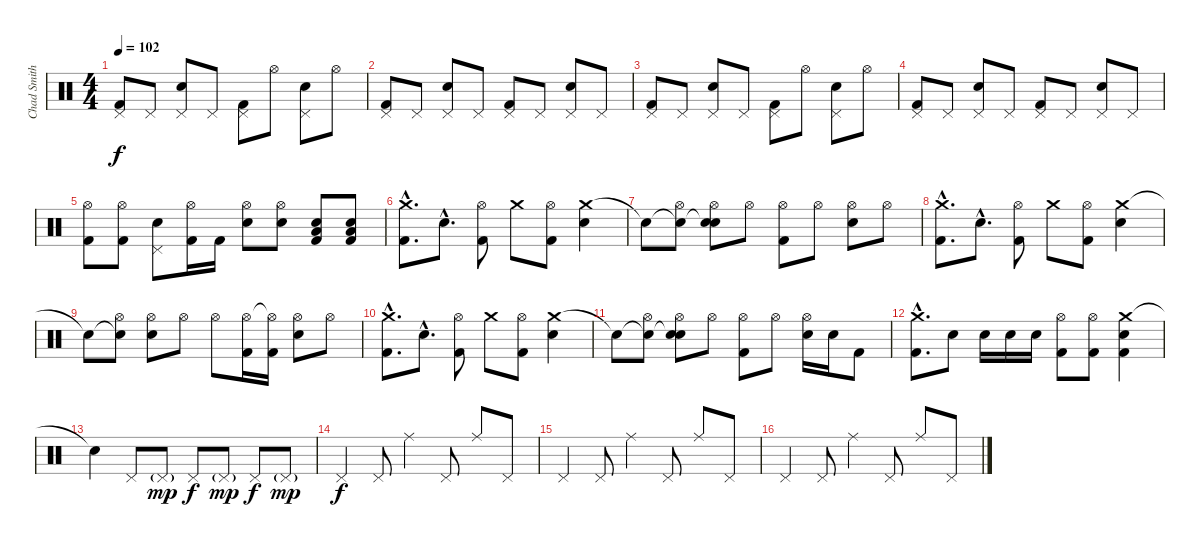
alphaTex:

\track ("Chad Smith (Batterie)" "Chad Smith") {instrument percussion}
\staff {score}
\articulation defaults
\ts (4 4)
\tempo 102
\clef neutral
\ks c
("Pedal Hi-Hat (hit)" "Kick (hit) 2").8{dy f} "Pedal Hi-Hat (hit)".8 ("Pedal Hi-Hat (hit)" "Electric Snare (hit)").8 "Pedal Hi-Hat (hit)".8 ("Pedal Hi-Hat (hit)" "Kick (hit) 2").8 "Hi-Hat (open)".8 ("Pedal Hi-Hat (hit)" "Electric Snare (hit)").8 "Hi-Hat (open)".8 |
("Pedal Hi-Hat (hit)" "Kick (hit) 2").8 "Pedal Hi-Hat (hit)".8 ("Pedal Hi-Hat (hit)" "Electric Snare (hit)").8 "Pedal Hi-Hat (hit)".8 ("Pedal Hi-Hat (hit)" "Kick (hit) 2").8 "Pedal Hi-Hat (hit)".8 ("Pedal Hi-Hat (hit)" "Electric Snare (hit)").8 "Pedal Hi-Hat (hit)".8 |
("Pedal Hi-Hat (hit)" "Kick (hit) 2").8 "Pedal Hi-Hat (hit)".8 ("Pedal Hi-Hat (hit)" "Electric Snare (hit)").8 "Pedal Hi-Hat (hit)".8 ("Pedal Hi-Hat (hit)" "Kick (hit) 2").8 "Hi-Hat (open)".8 ("Pedal Hi-Hat (hit)" "Electric Snare (hit)").8 "Hi-Hat (open)".8 |
("Pedal Hi-Hat (hit)" "Kick (hit) 2").8 "Pedal Hi-Hat (hit)".8 ("Pedal Hi-Hat (hit)" "Electric Snare (hit)").8 "Pedal Hi-Hat (hit)".8 ("Pedal Hi-Hat (hit)" "Kick (hit) 2").8 "Pedal Hi-Hat (hit)".8 ("Pedal Hi-Hat (hit)" "Electric Snare (hit)").8 "Pedal Hi-Hat (hit)".8 |
("Hi-Hat (open)" "Kick (hit) 2").8 ("Hi-Hat (open)" "Kick (hit) 2").8 ("Pedal Hi-Hat (hit)" "Electric Snare (hit)").8 ("Hi-Hat (open)" "Kick (hit) 2").16 "Kick (hit) 2".16 ("Hi-Hat (open)" "Electric Snare (hit)").8 ("Hi-Hat (open)" "Electric Snare (hit)").8 ("Low Tom (hit)" "Electric Snare (hit)" "Kick (hit) 2").8 ("Low Tom (hit)" "Electric Snare (hit)" "Kick (hit) 2").8 |
("Crash medium (hit)"{hac} "Kick (hit) 2"{hac}).8{d} "Electric Snare (hit)"{hac}.8{d} ("Hi-Hat (open)" "Kick (hit) 2").8 "Crash medium (hit)".8 ("Hi-Hat (open)" "Kick (hit) 2").8 ("Crash medium (hit)" "Electric Snare (hit)").4 |
"Snare (hit)"{t}.8 ("Snare (hit)"{t} "Hi-Hat (open)").8 ("Snare (hit)"{t} "Hi-Hat (open)" "Electric Snare (hit)").8 "Hi-Hat (open)".8 ("Hi-Hat (open)" "Kick (hit) 2").8 "Hi-Hat (open)".8 ("Hi-Hat (open)" "Electric Snare (hit)").8 "Hi-Hat (open)".8 |
("Crash medium (hit)"{hac} "Kick (hit) 2"{hac}).8{d} "Electric Snare (hit)"{hac}.8{d} ("Hi-Hat (open)" "Kick (hit) 2").8 "Crash medium (hit)".8 ("Hi-Hat (open)" "Kick (hit) 2").8 ("Crash medium (hit)" "Electric Snare (hit)").4 |
"Snare (hit)"{t}.8 ("Snare (hit)"{t} "Hi-Hat (open)").8 ("Hi-Hat (open)" "Electric Snare (hit)").8 "Hi-Hat (open)".8 "Hi-Hat (open)".8 ("Hi-Hat (open)" "Kick (hit) 2").16 ("Hi-Hat (open)"{t} "Kick (hit) 2").16 ("Hi-Hat (open)" "Electric Snare (hit)").8 "Hi-Hat (open)".8 |
("Crash medium (hit)"{hac} "Kick (hit) 2"{hac}).8{d} "Electric Snare (hit)"{hac}.8{d} ("Hi-Hat (open)" "Kick (hit) 2").8 "Crash medium (hit)".8 ("Hi-Hat (open)" "Kick (hit) 2").8 ("Crash medium (hit)" "Electric Snare (hit)").4 |
"Snare (hit)"{t}.8 ("Snare (hit)"{t} "Hi-Hat (open)").8 ("Snare (hit)"{t} "Hi-Hat (open)" "Electric Snare (hit)").8 "Hi-Hat (open)".8 ("Hi-Hat (open)" "Kick (hit) 2").8 "Hi-Hat (open)".8 ("Hi-Hat (open)" "Electric Snare (hit)").16 "Electric Snare (hit)".16 "Kick (hit) 2".8 |
("Crash medium (hit)"{hac} "Kick (hit) 2"{hac}).8{d} "Electric Snare (hit)".8 "Electric Snare (hit)".16 "Electric Snare (hit)".16 "Electric Snare (hit)".16 ("Hi-Hat (open)" "Kick (hit) 2").8 ("Hi-Hat (open)" "Kick (hit) 2").8 ("Crash medium (hit)" "Electric Snare (hit)" "Kick (hit) 2").4 |
"Snare (hit)"{t}.4 "Pedal Hi-Hat (hit)".8 "Pedal Hi-Hat (hit)"{g}.8{dy mp} "Pedal Hi-Hat (hit)".8{dy f} "Pedal Hi-Hat (hit)"{g}.8{dy mp} "Pedal Hi-Hat (hit)".8{dy f} "Pedal Hi-Hat (hit)"{g}.8{dy mp} |
"Pedal Hi-Hat (hit)".4{dy f} "Pedal Hi-Hat (hit)".8 "Ride (middle)".4 "Pedal Hi-Hat (hit)".8 "Ride (middle)".8 "Pedal Hi-Hat (hit)".8 |
"Pedal Hi-Hat (hit)".4 "Pedal Hi-Hat (hit)".8 "Ride (middle)".4 "Pedal Hi-Hat (hit)".8 "Ride (middle)".8 "Pedal Hi-Hat (hit)".8 |
"Pedal Hi-Hat (hit)".4 "Pedal Hi-Hat (hit)".8 "Ride (middle)".4 "Pedal Hi-Hat (hit)".8 "Ride (middle)".8 "Pedal Hi-Hat (hit)".8
